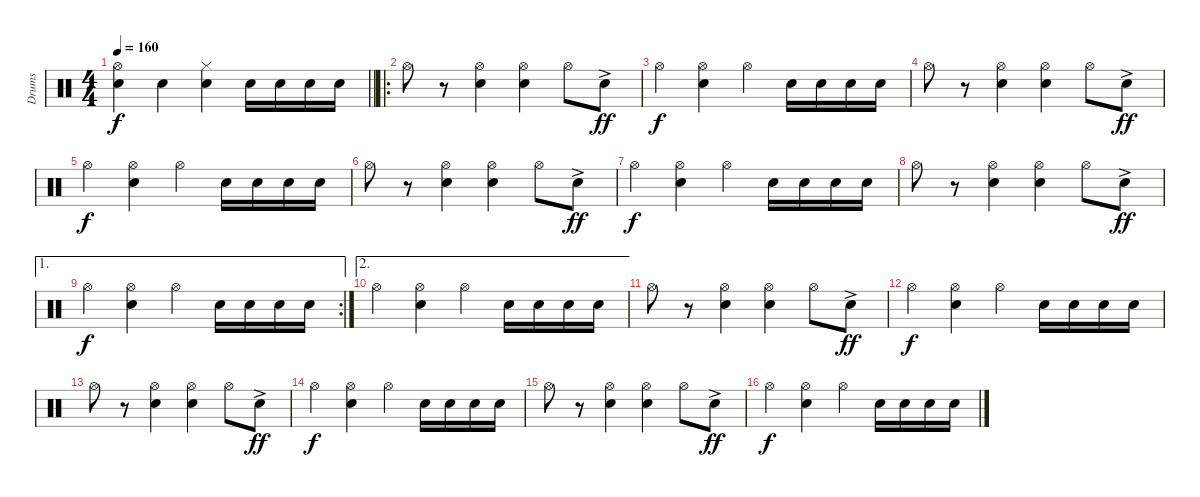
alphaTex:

\track ("Drums" "Drums") {instrument percussion}
\staff {score}
\articulation defaults
\ts (4 4)
\tempo 160
\clef neutral
\barLineRight lightlight
\ks c
("Hi-Hat (open)" "Electric Snare (hit)").4{dy f} "Electric Snare (hit)".4 ("Hi-Hat (closed)" "Electric Snare (hit)").4 "Electric Snare (hit)".16 "Electric Snare (hit)".16 "Electric Snare (hit)".16 "Electric Snare (hit)".16 |
\ro "Hi-Hat (open)".8
r.8 ("Hi-Hat (open)" "Electric Snare (hit)").4 ("Hi-Hat (open)" "Electric Snare (hit)").4 "Hi-Hat (open)".8 "Electric Snare (hit)"{ac}.8{dy ff} |
"Hi-Hat (open)".4{dy f} ("Hi-Hat (open)" "Electric Snare (hit)").4 "Hi-Hat (open)".4 "Electric Snare (hit)".16 "Electric Snare (hit)".16 "Electric Snare (hit)".16 "Electric Snare (hit)".16 |
"Hi-Hat (open)".8 r.8 ("Hi-Hat (open)" "Electric Snare (hit)").4 ("Hi-Hat (open)" "Electric Snare (hit)").4 "Hi-Hat (open)".8 "Electric Snare (hit)"{ac}.8{dy ff} |
"Hi-Hat (open)".4{dy f} ("Hi-Hat (open)" "Electric Snare (hit)").4 "Hi-Hat (open)".4 "Electric Snare (hit)".16 "Electric Snare (hit)".16 "Electric Snare (hit)".16 "Electric Snare (hit)".16 |
"Hi-Hat (open)".8 r.8 ("Hi-Hat (open)" "Electric Snare (hit)").4 ("Hi-Hat (open)" "Electric Snare (hit)").4 "Hi-Hat (open)".8 "Electric Snare (hit)"{ac}.8{dy ff} |
"Hi-Hat (open)".4{dy f} ("Hi-Hat (open)" "Electric Snare (hit)").4 "Hi-Hat (open)".4 "Electric Snare (hit)".16 "Electric Snare (hit)".16 "Electric Snare (hit)".16 "Electric Snare (hit)".16 |
"Hi-Hat (open)".8 r.8 ("Hi-Hat (open)" "Electric Snare (hit)").4 ("Hi-Hat (open)" "Electric Snare (hit)").4 "Hi-Hat (open)".8 "Electric Snare (hit)"{ac}.8{dy ff} |
\ae 1
\rc 2 "Hi-Hat (open)".4{dy f}
("Hi-Hat (open)" "Electric Snare (hit)").4 "Hi-Hat (open)".4 "Electric Snare (hit)".16 "Electric Snare (hit)".16 "Electric Snare (hit)".16 "Electric Snare (hit)".16 |
\ae 2 "Hi-Hat (open)".4
("Hi-Hat (open)" "Electric Snare (hit)").4 "Hi-Hat (open)".4 "Electric Snare (hit)".16 "Electric Snare (hit)".16 "Electric Snare (hit)".16 "Electric Snare (hit)".16 |
"Hi-Hat (open)".8 r.8 ("Hi-Hat (open)" "Electric Snare (hit)").4 ("Hi-Hat (open)" "Electric Snare (hit)").4 "Hi-Hat (open)".8 "Electric Snare (hit)"{ac}.8{dy ff} |
"Hi-Hat (open)".4{dy f} ("Hi-Hat (open)" "Electric Snare (hit)").4 "Hi-Hat (open)".4 "Electric Snare (hit)".16 "Electric Snare (hit)".16 "Electric Snare (hit)".16 "Electric Snare (hit)".16 |
"Hi-Hat (open)".8 r.8 ("Hi-Hat (open)" "Electric Snare (hit)").4 ("Hi-Hat (open)" "Electric Snare (hit)").4 "Hi-Hat (open)".8 "Electric Snare (hit)"{ac}.8{dy ff} |
"Hi-Hat (open)".4{dy f} ("Hi-Hat (open)" "Electric Snare (hit)").4 "Hi-Hat (open)".4 "Electric Snare (hit)".16 "Electric Snare (hit)".16 "Electric Snare (hit)".16 "Electric Snare (hit)".16 |
"Hi-Hat (open)".8 r.8 ("Hi-Hat (open)" "Electric Snare (hit)").4 ("Hi-Hat (open)" "Electric Snare (hit)").4 "Hi-Hat (open)".8 "Electric Snare (hit)"{ac}.8{dy ff} |
"Hi-Hat (open)".4{dy f} ("Hi-Hat (open)" "Electric Snare (hit)").4 "Hi-Hat (open)".4 "Electric Snare (hit)".16 "Electric Snare (hit)".16 "Electric Snare (hit)".16 "Electric Snare (hit)".16
